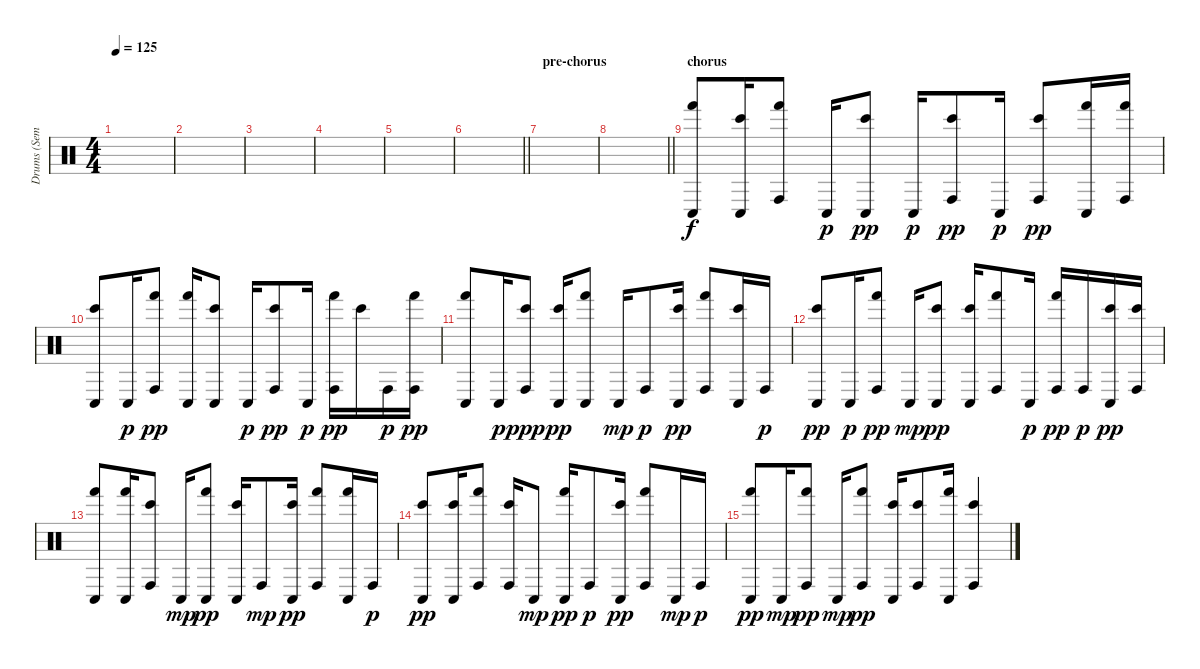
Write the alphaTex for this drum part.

\track ("Drums (Semple)" "Drums (Sem") {instrument percussion}
\staff {score}
\articulation defaults
\ts (4 4)
\tempo 125
\clef neutral
\ks c
|
|
|
|
|
\barLineRight lightlight
|
\section ("" "pre-chorus")
|
\barLineRight lightlight
|
\section ("" "chorus")
("Conga low (hit)" "Hand (hit)").8 ("Conga low (hit)" "Bongo High (hit)").16 ("Conga high (hit)" "Hand (hit)").8 "Conga low (hit)".16{dy p} ("Conga low (hit)" "Bongo High (hit)").8{dy pp} "Conga low (hit)".16{dy p} ("Conga high (hit)" "Bongo High (hit)").8{dy pp} "Conga low (hit)".16{dy p} ("Conga high (hit)" "Bongo High (hit)").8{dy pp} ("Conga low (hit)" "Hand (hit)").16 ("Conga high (hit)" "Hand (hit)").16 |
("Conga low (hit)" "Bongo High (hit)").8 "Conga low (hit)".16{dy p} ("Conga high (hit)" "Hand (hit)").8{dy pp} ("Conga low (hit)" "Hand (hit)").16 ("Conga low (hit)" "Bongo High (hit)").8 "Conga low (hit)".16{dy p} ("Conga high (hit)" "Bongo High (hit)").8{dy pp} "Conga low (hit)".16{dy p} ("Conga high (hit)" "Hand (hit)").16{dy pp} "Bongo High (hit)".16 "Conga high (hit)".16{dy p} ("Conga high (hit)" "Hand (hit)").16{dy pp} |
("Conga low (hit)" "Hand (hit)").8 "Conga low (hit)".16{dy p} ("Conga high (hit)" "Bongo High (hit)").8{dy ppp} ("Conga low (hit)" "Bongo High (hit)").16{dy pp} ("Conga low (hit)" "Hand (hit)").8 "Conga low (hit)".16{dy mp} "Conga high (hit)".8{dy p} ("Conga low (hit)" "Bongo High (hit)").16{dy pp} ("Conga high (hit)" "Hand (hit)").8 ("Conga low (hit)" "Bongo High (hit)").16 "Conga high (hit)".16{dy p} |
("Conga low (hit)" "Bongo High (hit)").8{dy pp} "Conga low (hit)".16{dy p} ("Conga high (hit)" "Hand (hit)").8{dy pp} "Conga low (hit)".16{dy mp} ("Conga low (hit)" "Bongo High (hit)").8{dy pp} ("Conga low (hit)" "Bongo High (hit)").16 ("Conga high (hit)" "Hand (hit)").8 "Conga low (hit)".16{dy p} ("Conga high (hit)" "Hand (hit)").16{dy pp} "Conga high (hit)".16{dy p} ("Conga low (hit)" "Bongo High (hit)").16{dy pp} ("Conga high (hit)" "Bongo High (hit)").16 |
("Conga low (hit)" "Hand (hit)").8 ("Conga low (hit)" "Hand (hit)").16 ("Conga high (hit)" "Bongo High (hit)").8 "Conga low (hit)".16{dy mp} ("Conga low (hit)" "Hand (hit)").8{dy pp} ("Conga low (hit)" "Bongo High (hit)").16 "Conga high (hit)".8{dy mp} ("Conga low (hit)" "Bongo High (hit)").16{dy pp} ("Conga high (hit)" "Hand (hit)").8 ("Conga low (hit)" "Hand (hit)").16 "Conga high (hit)".16{dy p} |
("Conga low (hit)" "Bongo High (hit)").8{dy pp} ("Conga low (hit)" "Bongo High (hit)").16 ("Conga high (hit)" "Hand (hit)").8 ("Conga high (hit)" "Bongo High (hit)").16 "Conga low (hit)".8{dy mp} ("Conga low (hit)" "Hand (hit)").16{dy pp} "Conga high (hit)".8{dy p} ("Conga low (hit)" "Bongo High (hit)").16{dy pp} ("Conga high (hit)" "Hand (hit)").8 "Conga low (hit)".16{dy mp} "Conga high (hit)".16{dy p} |
("Conga low (hit)" "Hand (hit)").8{dy pp} "Conga low (hit)".16{dy mp} ("Conga high (hit)" "Hand (hit)").8{dy pp} "Conga low (hit)".16{dy mp} ("Conga high (hit)" "Hand (hit)").8{dy pp} ("Conga low (hit)" "Bongo High (hit)").16 ("Conga high (hit)" "Bongo High (hit)").8 ("Conga low (hit)" "Hand (hit)").16 ("Conga high (hit)" "Bongo High (hit)").4
